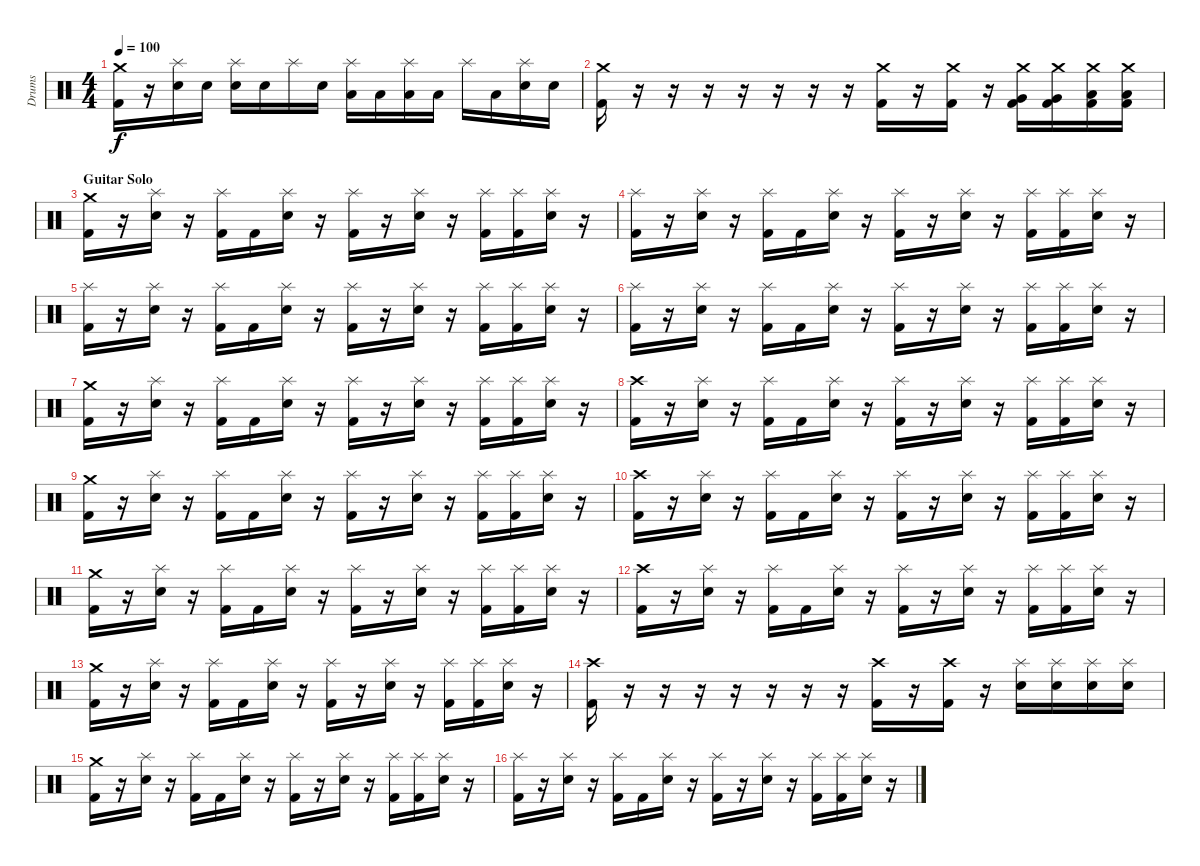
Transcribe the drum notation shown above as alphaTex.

\track ("Drums" "Drums") {instrument percussion}
\staff {score}
\articulation defaults
\ts (4 4)
\tempo 100
\clef neutral
\ks c
("Crash medium (hit)" "Kick (hit) 2").16{dy f} r.16 ("Splash (hit)" "Snare (hit) 2").16 "Snare (hit) 2".16 ("Splash (hit)" "Snare (hit) 2").16 "Snare (hit) 2".16 "Splash (hit)".16 "Snare (hit) 2".16 ("Splash (hit)" "Low Tom (hit)").16 "Low Tom (hit)".16 ("Splash (hit)" "Low Tom (hit)").16 "Low Tom (hit)".16 "Splash (hit)".16 "Low Tom (hit)".16 ("Splash (hit)" "Snare (hit) 2").16 "Snare (hit) 2".16 |
("Crash medium (hit)" "Kick (hit) 2").16 r.16 r.16 r.16 r.16 r.16 r.16 r.16 ("Crash medium (hit)" "Kick (hit) 2").16 r.16 ("Crash medium (hit)" "Kick (hit) 2").16 r.16 ("Crash medium (hit)" "Very Low Tom (hit)" "Kick (hit) 2").16 ("Crash medium (hit)" "Very Low Tom (hit)" "Kick (hit) 2").16 ("Crash medium (hit)" "Low Tom (hit)" "Kick (hit) 2").16 ("Crash medium (hit)" "Low Tom (hit)" "Kick (hit) 2").16 |
\section ("" "Guitar Solo")
("Crash medium (hit)" "Kick (hit) 2").16 r.16 ("Splash (hit)" "Snare (hit) 2").16 r.16 ("Splash (hit)" "Kick (hit) 2").16 "Kick (hit) 2".16 ("Splash (hit)" "Snare (hit) 2").16 r.16 ("Splash (hit)" "Kick (hit) 2").16 r.16 ("Splash (hit)" "Snare (hit) 2").16 r.16 ("Splash (hit)" "Kick (hit) 2").16 ("Splash (hit)" "Kick (hit) 2").16 ("Splash (hit)" "Snare (hit) 2").16 r.16 |
("Splash (hit)" "Kick (hit) 2").16 r.16 ("Splash (hit)" "Snare (hit) 2").16 r.16 ("Splash (hit)" "Kick (hit) 2").16 "Kick (hit) 2".16 ("Splash (hit)" "Snare (hit) 2").16 r.16 ("Splash (hit)" "Kick (hit) 2").16 r.16 ("Splash (hit)" "Snare (hit) 2").16 r.16 ("Splash (hit)" "Kick (hit) 2").16 ("Splash (hit)" "Kick (hit) 2").16 ("Splash (hit)" "Snare (hit) 2").16 r.16 |
("Splash (hit)" "Kick (hit) 2").16 r.16 ("Splash (hit)" "Snare (hit) 2").16 r.16 ("Splash (hit)" "Kick (hit) 2").16 "Kick (hit) 2".16 ("Splash (hit)" "Snare (hit) 2").16 r.16 ("Splash (hit)" "Kick (hit) 2").16 r.16 ("Splash (hit)" "Snare (hit) 2").16 r.16 ("Splash (hit)" "Kick (hit) 2").16 ("Splash (hit)" "Kick (hit) 2").16 ("Splash (hit)" "Snare (hit) 2").16 r.16 |
("Splash (hit)" "Kick (hit) 2").16 r.16 ("Splash (hit)" "Snare (hit) 2").16 r.16 ("Splash (hit)" "Kick (hit) 2").16 "Kick (hit) 2".16 ("Splash (hit)" "Snare (hit) 2").16 r.16 ("Splash (hit)" "Kick (hit) 2").16 r.16 ("Splash (hit)" "Snare (hit) 2").16 r.16 ("Splash (hit)" "Kick (hit) 2").16 ("Splash (hit)" "Kick (hit) 2").16 ("Splash (hit)" "Snare (hit) 2").16 r.16 |
("Crash medium (hit)" "Kick (hit) 2").16 r.16 ("Splash (hit)" "Snare (hit) 2").16 r.16 ("Splash (hit)" "Kick (hit) 2").16 "Kick (hit) 2".16 ("Splash (hit)" "Snare (hit) 2").16 r.16 ("Splash (hit)" "Kick (hit) 2").16 r.16 ("Splash (hit)" "Snare (hit) 2").16 r.16 ("Splash (hit)" "Kick (hit) 2").16 ("Splash (hit)" "Kick (hit) 2").16 ("Splash (hit)" "Snare (hit) 2").16 r.16 |
("Crash high (hit)" "Kick (hit) 2").16 r.16 ("Splash (hit)" "Snare (hit) 2").16 r.16 ("Splash (hit)" "Kick (hit) 2").16 "Kick (hit) 2".16 ("Splash (hit)" "Snare (hit) 2").16 r.16 ("Splash (hit)" "Kick (hit) 2").16 r.16 ("Splash (hit)" "Snare (hit) 2").16 r.16 ("Splash (hit)" "Kick (hit) 2").16 ("Splash (hit)" "Kick (hit) 2").16 ("Splash (hit)" "Snare (hit) 2").16 r.16 |
("Crash medium (hit)" "Kick (hit) 2").16 r.16 ("Splash (hit)" "Snare (hit) 2").16 r.16 ("Splash (hit)" "Kick (hit) 2").16 "Kick (hit) 2".16 ("Splash (hit)" "Snare (hit) 2").16 r.16 ("Splash (hit)" "Kick (hit) 2").16 r.16 ("Splash (hit)" "Snare (hit) 2").16 r.16 ("Splash (hit)" "Kick (hit) 2").16 ("Splash (hit)" "Kick (hit) 2").16 ("Splash (hit)" "Snare (hit) 2").16 r.16 |
("Crash high (hit)" "Kick (hit) 2").16 r.16 ("Splash (hit)" "Snare (hit) 2").16 r.16 ("Splash (hit)" "Kick (hit) 2").16 "Kick (hit) 2".16 ("Splash (hit)" "Snare (hit) 2").16 r.16 ("Splash (hit)" "Kick (hit) 2").16 r.16 ("Splash (hit)" "Snare (hit) 2").16 r.16 ("Splash (hit)" "Kick (hit) 2").16 ("Splash (hit)" "Kick (hit) 2").16 ("Splash (hit)" "Snare (hit) 2").16 r.16 |
("Crash medium (hit)" "Kick (hit) 2").16 r.16 ("Splash (hit)" "Snare (hit) 2").16 r.16 ("Splash (hit)" "Kick (hit) 2").16 "Kick (hit) 2".16 ("Splash (hit)" "Snare (hit) 2").16 r.16 ("Splash (hit)" "Kick (hit) 2").16 r.16 ("Splash (hit)" "Snare (hit) 2").16 r.16 ("Splash (hit)" "Kick (hit) 2").16 ("Splash (hit)" "Kick (hit) 2").16 ("Splash (hit)" "Snare (hit) 2").16 r.16 |
("Crash high (hit)" "Kick (hit) 2").16 r.16 ("Splash (hit)" "Snare (hit) 2").16 r.16 ("Splash (hit)" "Kick (hit) 2").16 "Kick (hit) 2".16 ("Splash (hit)" "Snare (hit) 2").16 r.16 ("Splash (hit)" "Kick (hit) 2").16 r.16 ("Splash (hit)" "Snare (hit) 2").16 r.16 ("Splash (hit)" "Kick (hit) 2").16 ("Splash (hit)" "Kick (hit) 2").16 ("Splash (hit)" "Snare (hit) 2").16 r.16 |
("Crash medium (hit)" "Kick (hit) 2").16 r.16 ("Splash (hit)" "Snare (hit) 2").16 r.16 ("Splash (hit)" "Kick (hit) 2").16 "Kick (hit) 2".16 ("Splash (hit)" "Snare (hit) 2").16 r.16 ("Splash (hit)" "Kick (hit) 2").16 r.16 ("Splash (hit)" "Snare (hit) 2").16 r.16 ("Splash (hit)" "Kick (hit) 2").16 ("Splash (hit)" "Kick (hit) 2").16 ("Splash (hit)" "Snare (hit) 2").16 r.16 |
("Crash high (hit)" "Kick (hit) 2").16 r.16 r.16 r.16 r.16 r.16 r.16 r.16 ("Crash high (hit)" "Kick (hit) 2").16 r.16 ("Crash high (hit)" "Kick (hit) 2").16 r.16 ("Splash (hit)" "Snare (hit) 2").16 ("Splash (hit)" "Snare (hit) 2").16 ("Splash (hit)" "Snare (hit) 2").16 ("Splash (hit)" "Snare (hit) 2").16 |
("Crash medium (hit)" "Kick (hit) 2").16 r.16 ("Splash (hit)" "Snare (hit) 2").16 r.16 ("Splash (hit)" "Kick (hit) 2").16 "Kick (hit) 2".16 ("Splash (hit)" "Snare (hit) 2").16 r.16 ("Splash (hit)" "Kick (hit) 2").16 r.16 ("Splash (hit)" "Snare (hit) 2").16 r.16 ("Splash (hit)" "Kick (hit) 2").16 ("Splash (hit)" "Kick (hit) 2").16 ("Splash (hit)" "Snare (hit) 2").16 r.16 |
("Splash (hit)" "Kick (hit) 2").16 r.16 ("Splash (hit)" "Snare (hit) 2").16 r.16 ("Splash (hit)" "Kick (hit) 2").16 "Kick (hit) 2".16 ("Splash (hit)" "Snare (hit) 2").16 r.16 ("Splash (hit)" "Kick (hit) 2").16 r.16 ("Splash (hit)" "Snare (hit) 2").16 r.16 ("Splash (hit)" "Kick (hit) 2").16 ("Splash (hit)" "Kick (hit) 2").16 ("Splash (hit)" "Snare (hit) 2").16 r.16
